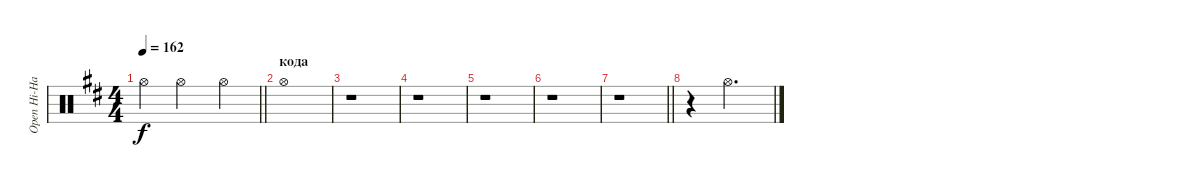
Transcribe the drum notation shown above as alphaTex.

\track ("Open Hi-Hat" "Open Hi-Ha") {instrument percussion}
\staff {score}
\articulation defaults
\ts (4 4)
\tempo 162
\clef neutral
\barLineRight lightlight
\ks bminor "Hi-Hat (open)".4{dy f} "Hi-Hat (open)".2 "Hi-Hat (open)".4
|
\section ("" "кода")
"Hi-Hat (open)".1 |
r.1 |
r.1 |
r.1 |
r.1 |
\barLineRight lightlight
r.1 |
r.4 "Hi-Hat (open)".2{d}
